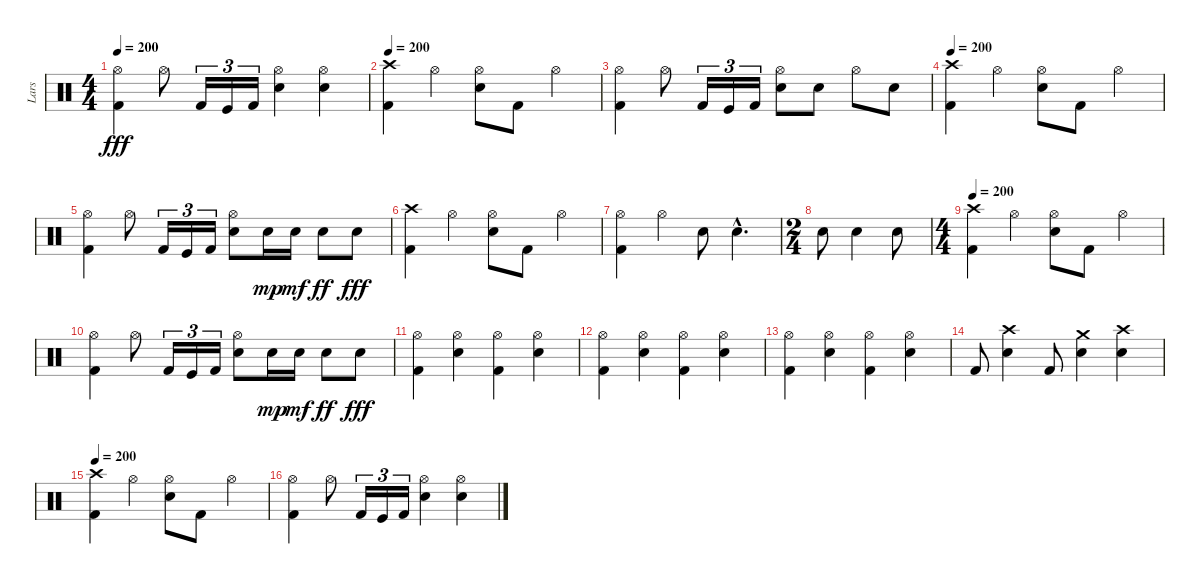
\track ("Lars" "Lars") {instrument percussion}
\staff {score}
\articulation defaults
\ts (4 4)
\tempo 200
\clef neutral
\ks c
("Hi-Hat (open)" "Kick (hit) 2").4{dy fff} "Hi-Hat (open)".8 "Kick (hit) 2".16{tu (3 2)} "Kick (hit)".16{tu (3 2)} "Kick (hit) 2".16{tu (3 2)} ("Hi-Hat (open)" "Snare (hit) 2").4 ("Hi-Hat (open)" "Snare (hit) 2").4 |
\tempo 200
("Crash high (hit)" "Kick (hit) 2").4 "Hi-Hat (open)".4 ("Hi-Hat (open)" "Snare (hit) 2").8 "Kick (hit) 2".8 "Hi-Hat (open)".4 |
("Hi-Hat (open)" "Kick (hit) 2").4 "Hi-Hat (open)".8 "Kick (hit) 2".16{tu (3 2)} "Kick (hit)".16{tu (3 2)} "Kick (hit) 2".16{tu (3 2)} ("Hi-Hat (open)" "Snare (hit) 2").8 "Snare (hit) 2".8 "Hi-Hat (open)".8 "Snare (hit) 2".8 |
\tempo 200
("Crash high (hit)" "Kick (hit) 2").4 "Hi-Hat (open)".4 ("Hi-Hat (open)" "Snare (hit) 2").8 "Kick (hit) 2".8 "Hi-Hat (open)".4 |
("Hi-Hat (open)" "Kick (hit) 2").4 "Hi-Hat (open)".8 "Kick (hit) 2".16{tu (3 2)} "Kick (hit)".16{tu (3 2)} "Kick (hit) 2".16{tu (3 2)} ("Hi-Hat (open)" "Snare (hit) 2").8 "Snare (hit) 2".16{dy mp} "Snare (hit) 2".16{dy mf} "Snare (hit) 2".8{dy ff} "Snare (hit) 2".8{dy fff} |
("Crash high (hit)" "Kick (hit) 2").4 "Hi-Hat (open)".4 ("Hi-Hat (open)" "Snare (hit) 2").8 "Kick (hit) 2".8 "Hi-Hat (open)".4 |
("Hi-Hat (open)" "Kick (hit) 2").4 "Hi-Hat (open)".4 "Snare (hit) 2".8 "Snare (hit) 2"{hac}.4{d} |
\ts (2 4)
"Snare (hit) 2".8 "Snare (hit) 2".4 "Snare (hit) 2".8 |
\ts (4 4)
\tempo 200
("Crash high (hit)" "Kick (hit) 2").4 "Hi-Hat (open)".4 ("Hi-Hat (open)" "Snare (hit) 2").8 "Kick (hit) 2".8 "Hi-Hat (open)".4 |
("Hi-Hat (open)" "Kick (hit) 2").4 "Hi-Hat (open)".8 "Kick (hit) 2".16{tu (3 2)} "Kick (hit)".16{tu (3 2)} "Kick (hit) 2".16{tu (3 2)} ("Hi-Hat (open)" "Snare (hit) 2").8 "Snare (hit) 2".16{dy mp} "Snare (hit) 2".16{dy mf} "Snare (hit) 2".8{dy ff} "Snare (hit) 2".8{dy fff} |
("Hi-Hat (open)" "Kick (hit) 2").4 ("Hi-Hat (open)" "Snare (hit) 2").4 ("Hi-Hat (open)" "Kick (hit) 2").4 ("Hi-Hat (open)" "Snare (hit) 2").4 |
("Hi-Hat (open)" "Kick (hit) 2").4 ("Hi-Hat (open)" "Snare (hit) 2").4 ("Hi-Hat (open)" "Kick (hit) 2").4 ("Hi-Hat (open)" "Snare (hit) 2").4 |
("Hi-Hat (open)" "Kick (hit) 2").4 ("Hi-Hat (open)" "Snare (hit) 2").4 ("Hi-Hat (open)" "Kick (hit) 2").4 ("Hi-Hat (open)" "Snare (hit) 2").4 |
"Kick (hit) 2".8 ("Crash high (hit)" "Snare (hit) 2").4 "Kick (hit) 2".8 ("Crash medium (hit)" "Snare (hit) 2").4 ("Crash high (hit)" "Snare (hit) 2").4 |
\tempo 200
("Crash high (hit)" "Kick (hit) 2").4 "Hi-Hat (open)".4 ("Hi-Hat (open)" "Snare (hit) 2").8 "Kick (hit) 2".8 "Hi-Hat (open)".4 |
("Hi-Hat (open)" "Kick (hit) 2").4 "Hi-Hat (open)".8 "Kick (hit) 2".16{tu (3 2)} "Kick (hit)".16{tu (3 2)} "Kick (hit) 2".16{tu (3 2)} ("Hi-Hat (open)" "Snare (hit) 2").4 ("Hi-Hat (open)" "Snare (hit) 2").4
